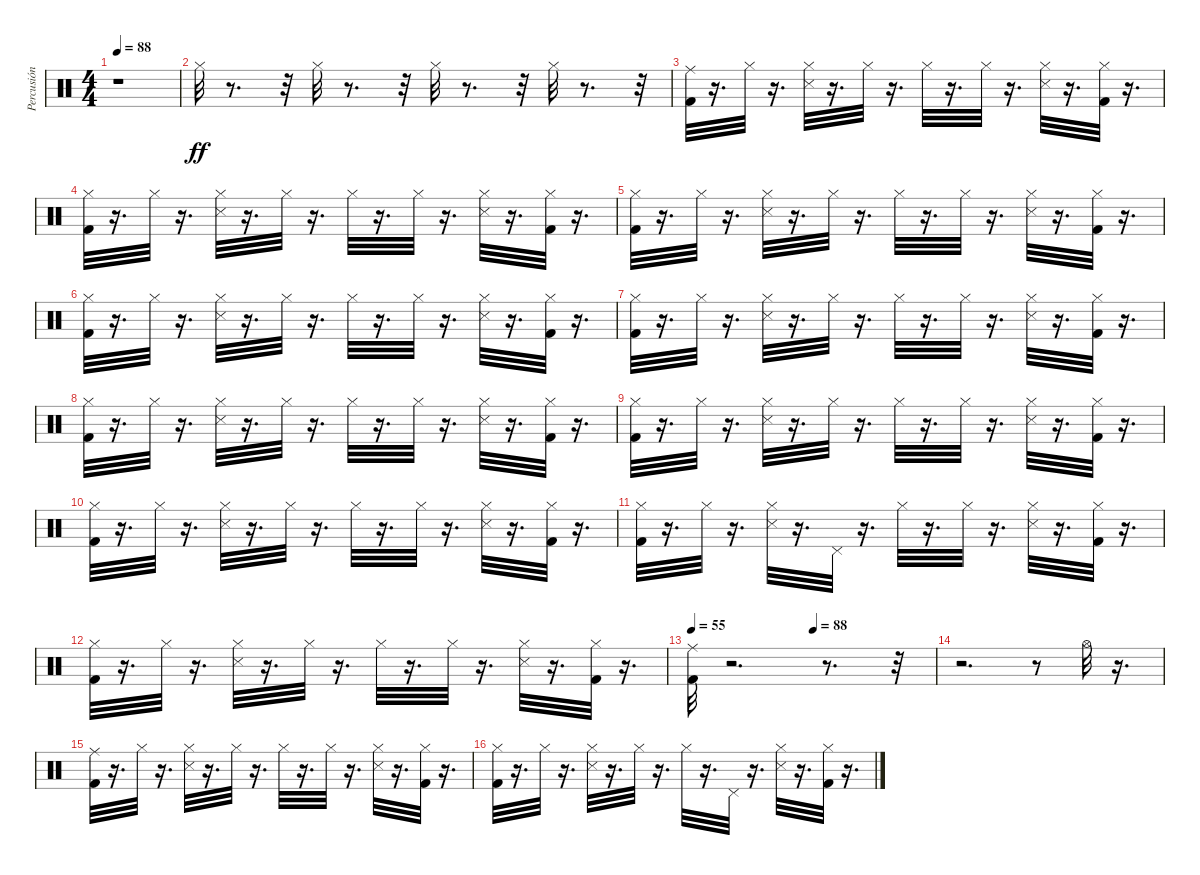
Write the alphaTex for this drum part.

\track ("Percusión" "Percusión") {instrument percussion}
\staff {score}
\articulation defaults
\ts (4 4)
\tempo 88
\clef neutral
\ks c
r.1{dy ff} |
"Hi-Hat (closed)".32 r.8{d} r.32 "Hi-Hat (closed)".32 r.8{d} r.32 "Hi-Hat (closed)".32 r.8{d} r.32 "Hi-Hat (closed)".32 r.8{d} r.32 |
("Ride (middle)" "Kick (hit) 2").32 r.16{d} "Hi-Hat (closed)".32 r.16{d} ("Hi-Hat (closed)" "Snare (side stick) 3").32 r.16{d} "Hi-Hat (closed)".32 r.16{d} "Hi-Hat (closed)".32 r.16{d} "Hi-Hat (closed)".32 r.16{d} ("Snare (side stick) 3" "Hi-Hat (closed)").32 r.16{d} ("Hi-Hat (closed)" "Kick (hit) 2").32 r.16{d} |
("Kick (hit) 2" "Hi-Hat (closed)").32 r.16{d} "Hi-Hat (closed)".32 r.16{d} ("Snare (side stick) 3" "Hi-Hat (closed)").32 r.16{d} "Hi-Hat (closed)".32 r.16{d} "Hi-Hat (closed)".32 r.16{d} "Hi-Hat (closed)".32 r.16{d} ("Hi-Hat (closed)" "Snare (side stick) 3").32 r.16{d} ("Hi-Hat (closed)" "Kick (hit) 2").32 r.16{d} |
("Kick (hit) 2" "Hi-Hat (closed)").32 r.16{d} "Hi-Hat (closed)".32 r.16{d} ("Hi-Hat (closed)" "Snare (side stick) 3").32 r.16{d} "Hi-Hat (closed)".32 r.16{d} "Hi-Hat (closed)".32 r.16{d} "Hi-Hat (closed)".32 r.16{d} ("Hi-Hat (closed)" "Snare (side stick) 3").32 r.16{d} ("Hi-Hat (closed)" "Kick (hit) 2").32 r.16{d} |
("Hi-Hat (closed)" "Kick (hit) 2").32 r.16{d} "Hi-Hat (closed)".32 r.16{d} ("Snare (side stick) 3" "Hi-Hat (closed)").32 r.16{d} "Hi-Hat (closed)".32 r.16{d} "Hi-Hat (closed)".32 r.16{d} "Hi-Hat (closed)".32 r.16{d} ("Snare (side stick) 3" "Hi-Hat (closed)").32 r.16{d} ("Hi-Hat (closed)" "Kick (hit) 2").32 r.16{d} |
("Kick (hit) 2" "Hi-Hat (closed)").32 r.16{d} "Hi-Hat (closed)".32 r.16{d} ("Hi-Hat (closed)" "Snare (side stick) 3").32 r.16{d} "Hi-Hat (closed)".32 r.16{d} "Hi-Hat (closed)".32 r.16{d} "Hi-Hat (closed)".32 r.16{d} ("Hi-Hat (closed)" "Snare (side stick) 3").32 r.16{d} ("Hi-Hat (closed)" "Kick (hit) 2").32 r.16{d} |
("Hi-Hat (closed)" "Kick (hit) 2").32 r.16{d} "Hi-Hat (closed)".32 r.16{d} ("Hi-Hat (closed)" "Snare (side stick) 3").32 r.16{d} "Hi-Hat (closed)".32 r.16{d} "Hi-Hat (closed)".32 r.16{d} "Hi-Hat (closed)".32 r.16{d} ("Snare (side stick) 3" "Hi-Hat (closed)").32 r.16{d} ("Hi-Hat (closed)" "Kick (hit) 2").32 r.16{d} |
("Hi-Hat (closed)" "Kick (hit) 2").32 r.16{d} "Hi-Hat (closed)".32 r.16{d} ("Hi-Hat (closed)" "Snare (side stick) 3").32 r.16{d} "Hi-Hat (closed)".32 r.16{d} "Hi-Hat (closed)".32 r.16{d} "Hi-Hat (closed)".32 r.16{d} ("Snare (side stick) 3" "Hi-Hat (closed)").32 r.16{d} ("Kick (hit) 2" "Hi-Hat (closed)").32 r.16{d} |
("Hi-Hat (closed)" "Kick (hit) 2").32 r.16{d} "Hi-Hat (closed)".32 r.16{d} ("Hi-Hat (closed)" "Snare (side stick) 3").32 r.16{d} "Hi-Hat (closed)".32 r.16{d} "Hi-Hat (closed)".32 r.16{d} "Hi-Hat (closed)".32 r.16{d} ("Snare (side stick) 3" "Hi-Hat (closed)").32 r.16{d} ("Kick (hit) 2" "Hi-Hat (closed)").32 r.16{d} |
("Kick (hit) 2" "Hi-Hat (closed)").32 r.16{d} "Hi-Hat (closed)".32 r.16{d} ("Hi-Hat (closed)" "Snare (side stick) 3").32 r.16{d} "Pedal Hi-Hat (hit)".32 r.16{d} "Hi-Hat (closed)".32 r.16{d} "Hi-Hat (closed)".32 r.16{d} ("Snare (side stick) 3" "Hi-Hat (closed)").32 r.16{d} ("Hi-Hat (closed)" "Kick (hit) 2").32 r.16{d} |
("Hi-Hat (closed)" "Kick (hit) 2").32 r.16{d} "Hi-Hat (closed)".32 r.16{d} ("Hi-Hat (closed)" "Snare (side stick) 3").32 r.16{d} "Hi-Hat (closed)".32 r.16{d} "Hi-Hat (closed)".32 r.16{d} "Hi-Hat (closed)".32 r.16{d} ("Snare (side stick) 3" "Hi-Hat (closed)").32 r.16{d} ("Hi-Hat (closed)" "Kick (hit) 2").32 r.16{d} |
\tempo 55
\tempo (88 0.5)
("Ride (middle)" "Kick (hit) 2").32 r.2{d} r.8{d} r.32 |
r.2{d} r.8 "Hi-Hat (open)".32 r.16{d} |
("Ride (middle)" "Kick (hit) 2").32 r.16{d} "Hi-Hat (closed)".32 r.16{d} ("Hi-Hat (closed)" "Snare (side stick) 3").32 r.16{d} "Hi-Hat (closed)".32 r.16{d} "Hi-Hat (closed)".32 r.16{d} "Hi-Hat (closed)".32 r.16{d} ("Hi-Hat (closed)" "Snare (side stick) 3").32 r.16{d} ("Kick (hit) 2" "Hi-Hat (closed)").32 r.16{d} |
("Hi-Hat (closed)" "Kick (hit) 2").32 r.16{d} "Hi-Hat (closed)".32 r.16{d} ("Hi-Hat (closed)" "Snare (side stick) 3").32 r.16{d} "Hi-Hat (closed)".32 r.16{d} "Hi-Hat (closed)".32 r.16{d} "Pedal Hi-Hat (hit)".32 r.16{d} ("Snare (side stick) 3" "Hi-Hat (closed)").32 r.16{d} ("Kick (hit) 2" "Hi-Hat (closed)").32 r.16{d}
